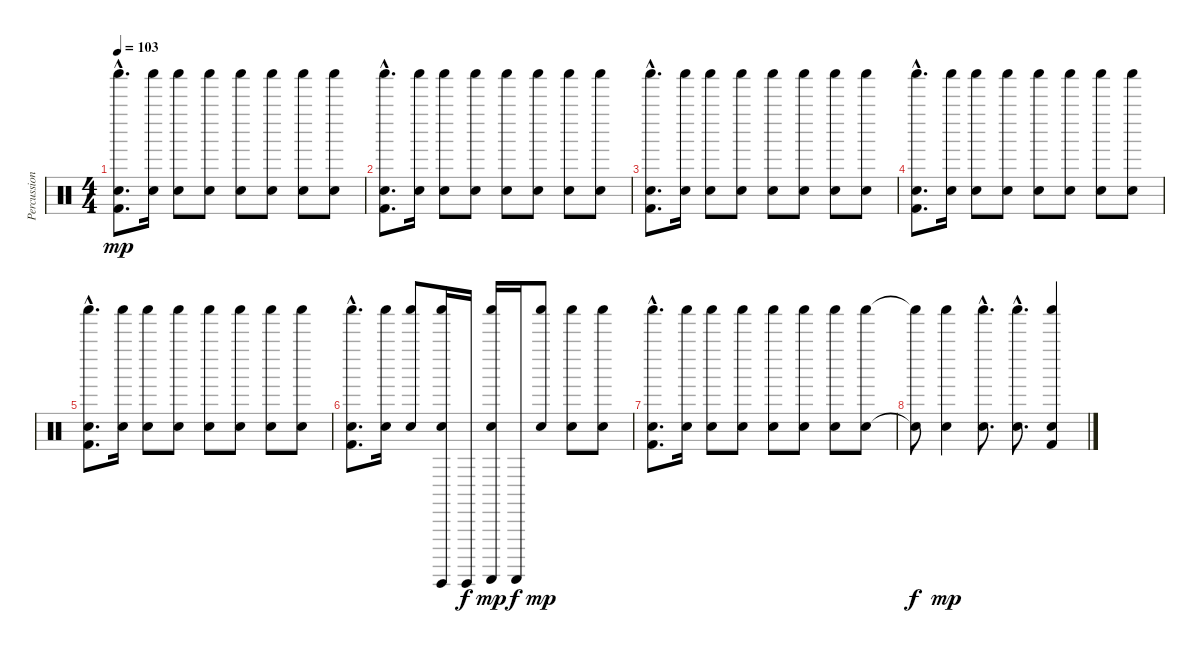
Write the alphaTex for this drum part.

\track ("Percussion" "Percussion") {instrument percussion}
\staff {score}
\articulation defaults
\ts (4 4)
\tempo 103
\clef neutral
\ks c
("Electric Snare (hit)"{hac} "Shaker (hit)"{hac} "Kick (hit) 2"{hac}).8{d dy mp} ("Electric Snare (hit)" "Shaker (hit)").16 ("Electric Snare (hit)" "Shaker (hit)").8 ("Electric Snare (hit)" "Shaker (hit)").8 ("Electric Snare (hit)" "Shaker (hit)").8 ("Electric Snare (hit)" "Shaker (hit)").8 ("Electric Snare (hit)" "Shaker (hit)").8 ("Electric Snare (hit)" "Shaker (hit)").8 |
("Electric Snare (hit)"{hac} "Shaker (hit)"{hac} "Kick (hit) 2"{hac}).8{d} ("Electric Snare (hit)" "Shaker (hit)").16 ("Electric Snare (hit)" "Shaker (hit)").8 ("Electric Snare (hit)" "Shaker (hit)").8 ("Electric Snare (hit)" "Shaker (hit)").8 ("Electric Snare (hit)" "Shaker (hit)").8 ("Electric Snare (hit)" "Shaker (hit)").8 ("Electric Snare (hit)" "Shaker (hit)").8 |
("Electric Snare (hit)"{hac} "Shaker (hit)"{hac} "Kick (hit) 2"{hac}).8{d} ("Electric Snare (hit)" "Shaker (hit)").16 ("Electric Snare (hit)" "Shaker (hit)").8 ("Electric Snare (hit)" "Shaker (hit)").8 ("Electric Snare (hit)" "Shaker (hit)").8 ("Electric Snare (hit)" "Shaker (hit)").8 ("Electric Snare (hit)" "Shaker (hit)").8 ("Electric Snare (hit)" "Shaker (hit)").8 |
("Electric Snare (hit)"{hac} "Shaker (hit)"{hac} "Kick (hit) 2"{hac}).8{d} ("Electric Snare (hit)" "Shaker (hit)").16 ("Electric Snare (hit)" "Shaker (hit)").8 ("Electric Snare (hit)" "Shaker (hit)").8 ("Electric Snare (hit)" "Shaker (hit)").8 ("Electric Snare (hit)" "Shaker (hit)").8 ("Electric Snare (hit)" "Shaker (hit)").8 ("Electric Snare (hit)" "Shaker (hit)").8 |
("Electric Snare (hit)"{hac} "Shaker (hit)"{hac} "Kick (hit) 2"{hac}).8{d} ("Electric Snare (hit)" "Shaker (hit)").16 ("Electric Snare (hit)" "Shaker (hit)").8 ("Electric Snare (hit)" "Shaker (hit)").8 ("Electric Snare (hit)" "Shaker (hit)").8 ("Electric Snare (hit)" "Shaker (hit)").8 ("Electric Snare (hit)" "Shaker (hit)").8 ("Electric Snare (hit)" "Shaker (hit)").8 |
("Electric Snare (hit)"{hac} "Shaker (hit)"{hac} "Kick (hit) 2"{hac}).8{d} ("Electric Snare (hit)" "Shaker (hit)").16 ("Electric Snare (hit)" "Shaker (hit)").8 ("Guiro (hit)" "Electric Snare (hit)" "Shaker (hit)").16 "Guiro (hit)".16{dy f} ("Guiro (scrap-return)" "Electric Snare (hit)" "Shaker (hit)").16{dy mp} "Guiro (scrap-return)".16{dy f} ("Electric Snare (hit)" "Shaker (hit)").8{dy mp} ("Electric Snare (hit)" "Shaker (hit)").8 ("Electric Snare (hit)" "Shaker (hit)").8 |
("Electric Snare (hit)"{hac} "Shaker (hit)"{hac} "Kick (hit) 2"{hac}).8{d} ("Electric Snare (hit)" "Shaker (hit)").16 ("Electric Snare (hit)" "Shaker (hit)").8 ("Electric Snare (hit)" "Shaker (hit)").8 ("Electric Snare (hit)" "Shaker (hit)").8 ("Electric Snare (hit)" "Shaker (hit)").8 ("Electric Snare (hit)" "Shaker (hit)").8 ("Electric Snare (hit)" "Shaker (hit)").8 |
("Electric Snare (hit)"{t} "Shaker (hit)"{t}).8{dy f} ("Electric Snare (hit)" "Shaker (hit)").4{dy mp} ("Electric Snare (hit)"{hac} "Shaker (hit)"{hac}).8{d} ("Electric Snare (hit)"{hac} "Shaker (hit)"{hac}).8{d} ("Electric Snare (hit)" "Shaker (hit)" "Kick (hit) 2").4
